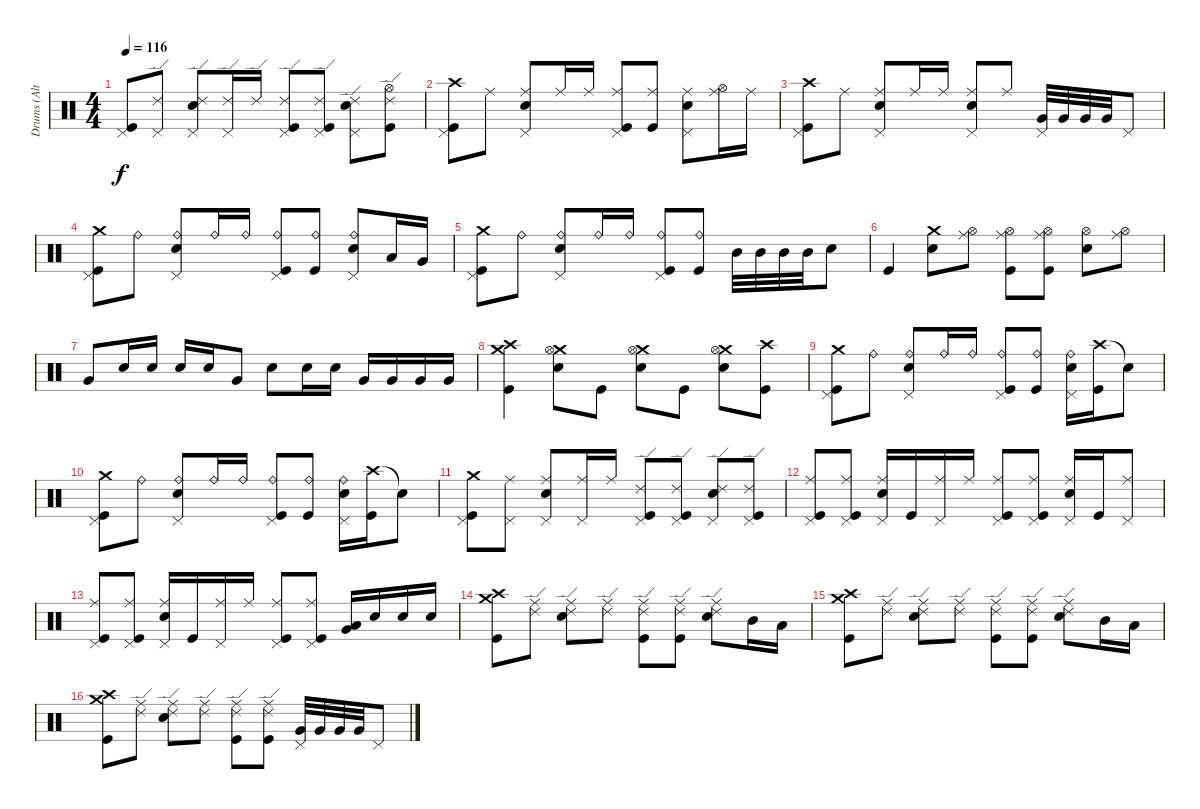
\track ("Drums (Alternate - NOT ON MASTER)" "Drums (Alt") {mute instrument percussion}
\staff {score}
\articulation defaults
\ts (4 4)
\tempo 116
\clef neutral
\ks c
("Pedal Hi-Hat (hit)" "Kick (hit)").8{dy f} ("Ride (edge) 2" "Pedal Hi-Hat (hit)").8 ("Ride (edge) 2" "Snare (hit) 2" "Pedal Hi-Hat (hit)").8 ("Ride (edge) 2" "Pedal Hi-Hat (hit)").16 "Ride (edge) 2".16 ("Ride (edge) 2" "Pedal Hi-Hat (hit)" "Kick (hit)").8 ("Ride (edge) 2" "Pedal Hi-Hat (hit)" "Kick (hit)").8 ("Ride (edge) 2" "Snare (hit) 2" "Pedal Hi-Hat (hit)").8 ("Ride (edge) 2" "Hi-Hat (open)" "Kick (hit)").8 |
("Crash high (hit)" "Pedal Hi-Hat (hit)" "Kick (hit)").8 "Ride (middle)".8 ("Ride (middle)" "Snare (hit) 2" "Pedal Hi-Hat (hit)").8 "Ride (middle)".16 "Ride (middle)".16 ("Ride (middle)" "Pedal Hi-Hat (hit)" "Kick (hit)").8 ("Ride (middle)" "Kick (hit)").8 ("Ride (middle)" "Snare (hit) 2" "Pedal Hi-Hat (hit)").8 ("Ride (middle)" "Hi-Hat (open)").16 "Ride (middle)".16 |
("Crash high (hit)" "Pedal Hi-Hat (hit)" "Kick (hit)").8 "Ride (middle)".8 ("Ride (middle)" "Snare (hit) 2" "Pedal Hi-Hat (hit)").8 "Ride (middle)".16 "Ride (middle)".16 ("Ride (middle)" "Snare (hit) 2" "Pedal Hi-Hat (hit)").8 "Ride (middle)".8 ("Very Low Tom (hit)" "Pedal Hi-Hat (hit)").32 "Very Low Tom (hit)".32 "Very Low Tom (hit)".32 "Very Low Tom (hit)".32 "Pedal Hi-Hat (hit)".8 |
("Crash medium (hit)" "Pedal Hi-Hat (hit)" "Kick (hit)").8 "Ride (bell)".8 ("Ride (bell)" "Snare (hit) 2" "Pedal Hi-Hat (hit)").8 "Ride (bell)".16 "Ride (bell)".16 ("Ride (bell)" "Pedal Hi-Hat (hit)" "Kick (hit)").8 ("Ride (bell)" "Kick (hit)").8 ("Ride (bell)" "Snare (hit) 2" "Pedal Hi-Hat (hit)").8 "Low Tom (hit)".16 "Very Low Tom (hit)".16 |
("Crash medium (hit)" "Pedal Hi-Hat (hit)" "Kick (hit)").8 "Ride (bell)".8 ("Ride (bell)" "Snare (hit) 2" "Pedal Hi-Hat (hit)").8 "Ride (bell)".16 "Ride (bell)".16 ("Ride (bell)" "Pedal Hi-Hat (hit)" "Kick (hit)").8 ("Ride (bell)" "Kick (hit)").8 "Mid Tom (hit)".32 "Mid Tom (hit)".32 "Mid Tom (hit)".32 "Mid Tom (hit)".32 "Snare (hit) 2".8 |
"Kick (hit)".4 ("Crash medium (hit)" "Snare (hit) 2").8 ("Ride (middle)" "Hi-Hat (open)").8 ("Ride (middle)" "Hi-Hat (open)" "Kick (hit)").8 ("Ride (middle)" "Hi-Hat (open)" "Kick (hit)").8 ("Snare (hit) 2" "Hi-Hat (open)").8 ("Ride (middle)" "Hi-Hat (open)").8 |
"Very Low Tom (hit)".8 "Snare (hit) 2".16 "Snare (hit) 2".16 "Snare (hit) 2".16 "Snare (hit) 2".16 "Very Low Tom (hit)".8 "Snare (hit) 2".8 "Snare (hit) 2".16 "Snare (hit) 2".16 "Very Low Tom (hit)".16 "Very Low Tom (hit)".16 "Very Low Tom (hit)".16 "Very Low Tom (hit)".16 |
("Crash medium (hit)" "Crash high (hit)" "Kick (hit)").4 ("Crash medium (hit)" "Snare (hit) 2" "Hi-Hat (open)").8 "Kick (hit)".8 ("Crash medium (hit)" "Snare (hit) 2" "Hi-Hat (open)").8 "Kick (hit)".8 ("Crash medium (hit)" "Snare (hit) 2" "Hi-Hat (open)").8 ("Crash high (hit)" "Kick (hit)").8 |
("Crash medium (hit)" "Pedal Hi-Hat (hit)" "Kick (hit)").8 "Ride (bell)".8 ("Ride (bell)" "Snare (hit) 2" "Pedal Hi-Hat (hit)").8 "Ride (bell)".16 "Ride (bell)".16 ("Ride (bell)" "Pedal Hi-Hat (hit)" "Kick (hit)").8 ("Ride (bell)" "Kick (hit)").8 ("Ride (bell)" "Snare (hit) 2" "Pedal Hi-Hat (hit)").16 ("Crash high (hit)" "Kick (hit)").16 "Snare (hit)"{t}.8 |
("Crash medium (hit)" "Pedal Hi-Hat (hit)" "Kick (hit)").8 "Ride (bell)".8 ("Ride (bell)" "Snare (hit) 2" "Pedal Hi-Hat (hit)").8 "Ride (bell)".16 "Ride (bell)".16 ("Ride (bell)" "Pedal Hi-Hat (hit)" "Kick (hit)").8 ("Ride (bell)" "Kick (hit)").8 ("Ride (bell)" "Snare (hit) 2" "Pedal Hi-Hat (hit)").16 ("Crash high (hit)" "Kick (hit)").16 "Snare (hit)"{t}.8 |
("Crash medium (hit)" "Pedal Hi-Hat (hit)" "Kick (hit)").8 ("Ride (middle)" "Pedal Hi-Hat (hit)").8 ("Ride (middle)" "Snare (hit) 2" "Pedal Hi-Hat (hit)").8 ("Ride (middle)" "Pedal Hi-Hat (hit)").16 "Ride (middle)".16 ("Ride (edge) 2" "Pedal Hi-Hat (hit)" "Kick (hit)").8 ("Ride (edge) 2" "Pedal Hi-Hat (hit)" "Kick (hit)").8 ("Ride (edge) 2" "Snare (hit) 2" "Pedal Hi-Hat (hit)").8 ("Ride (edge) 2" "Pedal Hi-Hat (hit)" "Kick (hit)").8 |
("Ride (middle)" "Pedal Hi-Hat (hit)" "Kick (hit)").8 ("Ride (middle)" "Pedal Hi-Hat (hit)" "Kick (hit)").8 ("Ride (middle)" "Snare (hit) 2" "Pedal Hi-Hat (hit)").16 "Kick (hit)".16 ("Ride (middle)" "Pedal Hi-Hat (hit)").16 "Ride (middle)".16 ("Ride (middle)" "Pedal Hi-Hat (hit)" "Kick (hit)").8 ("Ride (middle)" "Pedal Hi-Hat (hit)" "Kick (hit)").8 ("Ride (middle)" "Snare (hit) 2" "Pedal Hi-Hat (hit)").16 "Kick (hit)".16 ("Ride (middle)" "Pedal Hi-Hat (hit)").8 |
("Ride (middle)" "Pedal Hi-Hat (hit)" "Kick (hit)").8 ("Ride (middle)" "Pedal Hi-Hat (hit)" "Kick (hit)").8 ("Ride (middle)" "Snare (hit) 2" "Pedal Hi-Hat (hit)").16 "Kick (hit)".16 ("Ride (middle)" "Pedal Hi-Hat (hit)").16 "Ride (middle)".16 ("Ride (middle)" "Pedal Hi-Hat (hit)" "Kick (hit)").8 ("Ride (middle)" "Pedal Hi-Hat (hit)" "Kick (hit)").8 ("Low Tom (hit)" "Very Low Tom (hit)").16 "Snare (hit) 2".16 "Snare (hit) 2".16 "Snare (hit) 2".16 |
("Crash medium (hit)" "Crash high (hit)" "Kick (hit)").8 ("Ride (middle)" "Ride (edge) 2").8 ("Ride (middle)" "Ride (edge) 2" "Snare (hit) 2").8 ("Ride (middle)" "Ride (edge) 2").8 ("Ride (middle)" "Ride (edge) 2" "Kick (hit)").8 ("Ride (middle)" "Ride (edge) 2" "Kick (hit)").8 ("Ride (middle)" "Ride (edge) 2" "Snare (hit) 2").8 "Mid Tom (hit)".16 "Low Tom (hit)".16 |
("Crash medium (hit)" "Crash high (hit)" "Kick (hit)").8 ("Ride (middle)" "Ride (edge) 2").8 ("Ride (middle)" "Ride (edge) 2" "Snare (hit) 2").8 ("Ride (middle)" "Ride (edge) 2").8 ("Ride (middle)" "Ride (edge) 2" "Kick (hit)").8 ("Ride (middle)" "Ride (edge) 2" "Kick (hit)").8 ("Ride (middle)" "Ride (edge) 2" "Snare (hit) 2").8 "Mid Tom (hit)".16 "Low Tom (hit)".16 |
("Crash medium (hit)" "Crash high (hit)" "Kick (hit)").8 ("Ride (middle)" "Ride (edge) 2").8 ("Ride (middle)" "Ride (edge) 2" "Snare (hit) 2").8 ("Ride (middle)" "Ride (edge) 2").8 ("Ride (middle)" "Ride (edge) 2" "Kick (hit)").8 ("Ride (middle)" "Ride (edge) 2" "Kick (hit)").8 ("Very Low Tom (hit)" "Pedal Hi-Hat (hit)").32 "Very Low Tom (hit)".32 "Very Low Tom (hit)".32 "Very Low Tom (hit)".32 "Pedal Hi-Hat (hit)".8
